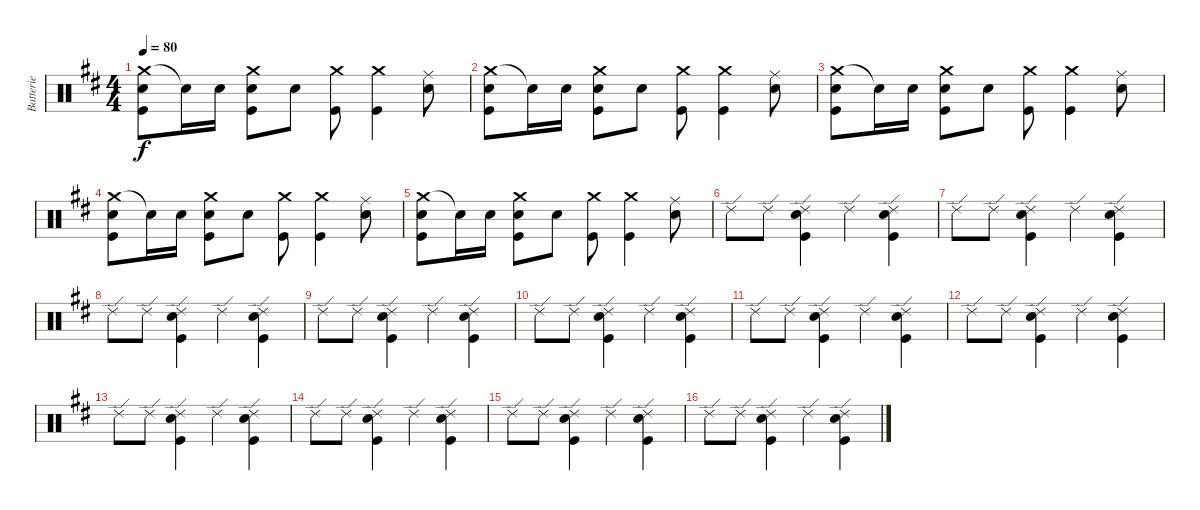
\track ("Batterie" "Batterie") {instrument percussion}
\staff {score}
\articulation defaults
\ts (4 4)
\tempo 80
\clef neutral
\ks d
("Crash medium (hit)" "Electric Snare (hit)" "Kick (hit)").8{dy f} "Electric Snare (hit)"{t}.16 "Electric Snare (hit)".16 ("Crash medium (hit)" "Electric Snare (hit)" "Kick (hit)").8 "Electric Snare (hit)".8 ("Crash medium (hit)" "Kick (hit)").8 ("Crash medium (hit)" "Kick (hit)").4 ("Ride (middle)" "Electric Snare (hit)").8 |
("Crash medium (hit)" "Electric Snare (hit)" "Kick (hit)").8 "Electric Snare (hit)"{t}.16 "Electric Snare (hit)".16 ("Crash medium (hit)" "Electric Snare (hit)" "Kick (hit)").8 "Electric Snare (hit)".8 ("Crash medium (hit)" "Kick (hit)").8 ("Crash medium (hit)" "Kick (hit)").4 ("Ride (middle)" "Electric Snare (hit)").8 |
("Crash medium (hit)" "Electric Snare (hit)" "Kick (hit)").8 "Electric Snare (hit)"{t}.16 "Electric Snare (hit)".16 ("Crash medium (hit)" "Electric Snare (hit)" "Kick (hit)").8 "Electric Snare (hit)".8 ("Crash medium (hit)" "Kick (hit)").8 ("Crash medium (hit)" "Kick (hit)").4 ("Ride (middle)" "Electric Snare (hit)").8 |
("Crash medium (hit)" "Electric Snare (hit)" "Kick (hit)").8 "Electric Snare (hit)"{t}.16 "Electric Snare (hit)".16 ("Crash medium (hit)" "Electric Snare (hit)" "Kick (hit)").8 "Electric Snare (hit)".8 ("Crash medium (hit)" "Kick (hit)").8 ("Crash medium (hit)" "Kick (hit)").4 ("Ride (middle)" "Electric Snare (hit)").8 |
("Crash medium (hit)" "Electric Snare (hit)" "Kick (hit)").8 "Electric Snare (hit)"{t}.16 "Electric Snare (hit)".16 ("Crash medium (hit)" "Electric Snare (hit)" "Kick (hit)").8 "Electric Snare (hit)".8 ("Crash medium (hit)" "Kick (hit)").8 ("Crash medium (hit)" "Kick (hit)").4 ("Ride (middle)" "Electric Snare (hit)").8 |
"Ride (edge) 2".8 "Ride (edge) 2".8 ("Ride (edge) 2" "Electric Snare (hit)" "Kick (hit)").4 "Ride (edge) 2".4 ("Ride (edge) 2" "Electric Snare (hit)" "Kick (hit)").4 |
"Ride (edge) 2".8 "Ride (edge) 2".8 ("Ride (edge) 2" "Electric Snare (hit)" "Kick (hit)").4 "Ride (edge) 2".4 ("Ride (edge) 2" "Electric Snare (hit)" "Kick (hit)").4 |
"Ride (edge) 2".8 "Ride (edge) 2".8 ("Ride (edge) 2" "Electric Snare (hit)" "Kick (hit)").4 "Ride (edge) 2".4 ("Ride (edge) 2" "Electric Snare (hit)" "Kick (hit)").4 |
"Ride (edge) 2".8 "Ride (edge) 2".8 ("Ride (edge) 2" "Electric Snare (hit)" "Kick (hit)").4 "Ride (edge) 2".4 ("Ride (edge) 2" "Electric Snare (hit)" "Kick (hit)").4 |
"Ride (edge) 2".8 "Ride (edge) 2".8 ("Ride (edge) 2" "Electric Snare (hit)" "Kick (hit)").4 "Ride (edge) 2".4 ("Ride (edge) 2" "Electric Snare (hit)" "Kick (hit)").4 |
"Ride (edge) 2".8 "Ride (edge) 2".8 ("Ride (edge) 2" "Electric Snare (hit)" "Kick (hit)").4 "Ride (edge) 2".4 ("Ride (edge) 2" "Electric Snare (hit)" "Kick (hit)").4 |
"Ride (edge) 2".8 "Ride (edge) 2".8 ("Ride (edge) 2" "Electric Snare (hit)" "Kick (hit)").4 "Ride (edge) 2".4 ("Ride (edge) 2" "Electric Snare (hit)" "Kick (hit)").4 |
"Ride (edge) 2".8 "Ride (edge) 2".8 ("Ride (edge) 2" "Electric Snare (hit)" "Kick (hit)").4 "Ride (edge) 2".4 ("Ride (edge) 2" "Electric Snare (hit)" "Kick (hit)").4 |
"Ride (edge) 2".8 "Ride (edge) 2".8 ("Ride (edge) 2" "Electric Snare (hit)" "Kick (hit)").4 "Ride (edge) 2".4 ("Ride (edge) 2" "Electric Snare (hit)" "Kick (hit)").4 |
"Ride (edge) 2".8 "Ride (edge) 2".8 ("Ride (edge) 2" "Electric Snare (hit)" "Kick (hit)").4 "Ride (edge) 2".4 ("Ride (edge) 2" "Electric Snare (hit)" "Kick (hit)").4 |
"Ride (edge) 2".8 "Ride (edge) 2".8 ("Ride (edge) 2" "Electric Snare (hit)" "Kick (hit)").4 "Ride (edge) 2".4 ("Ride (edge) 2" "Electric Snare (hit)" "Kick (hit)").4
